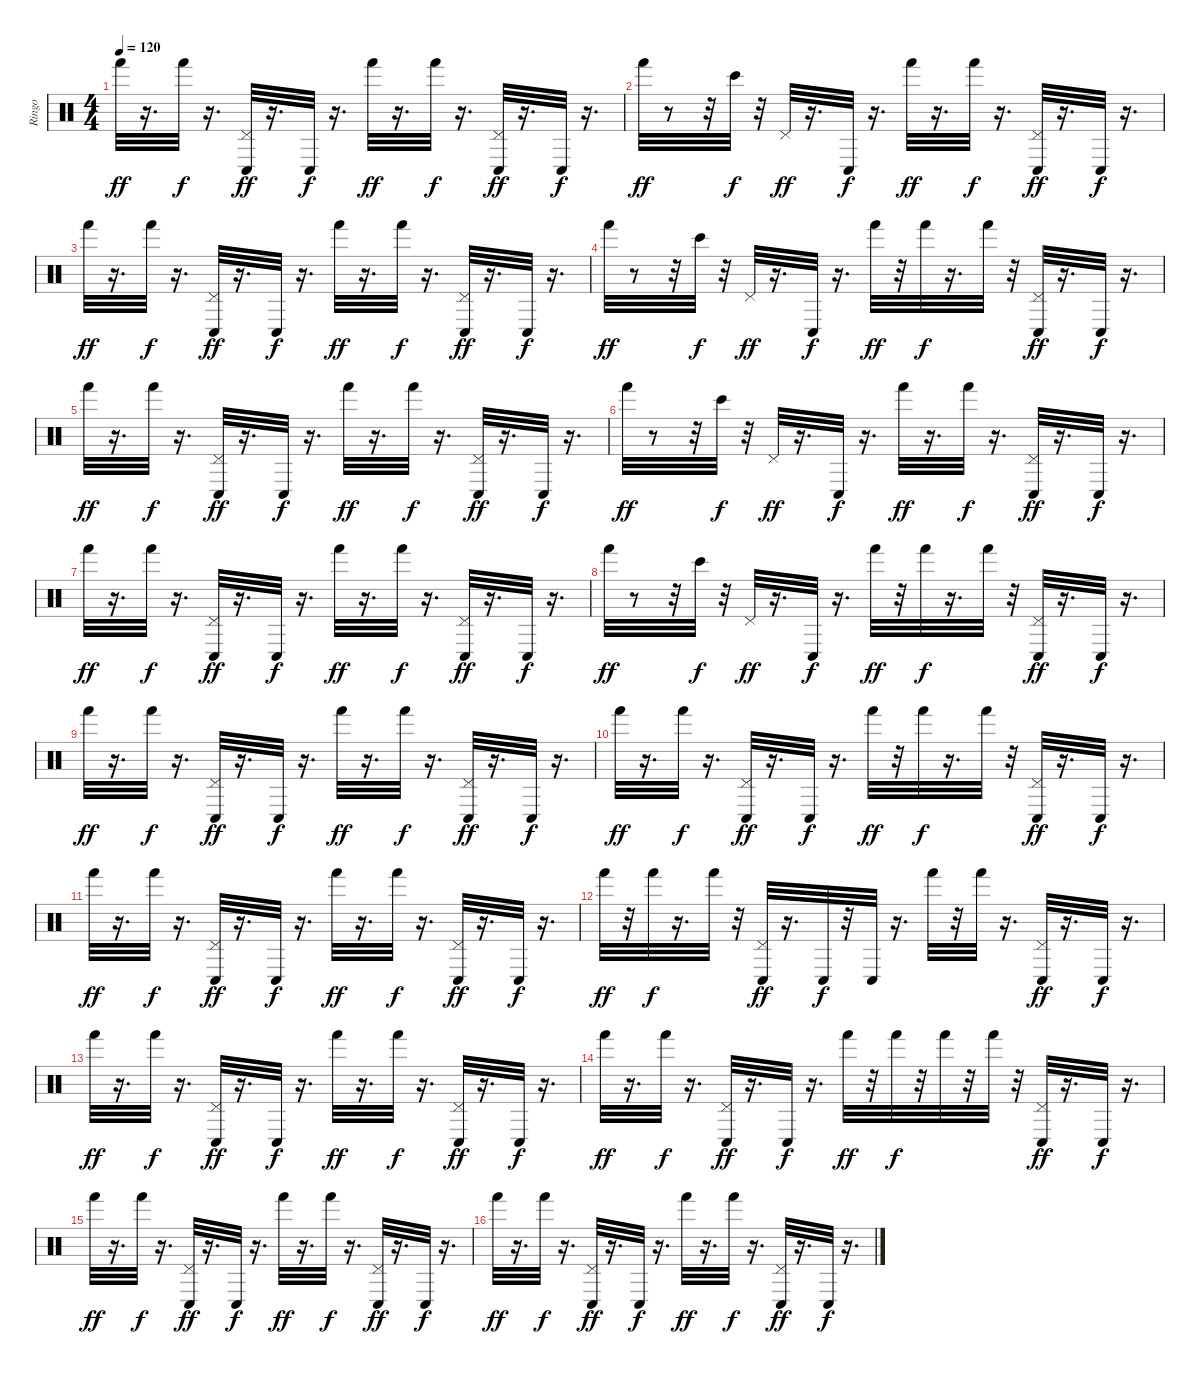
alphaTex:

\track ("Ringo" "Ringo") {instrument percussion}
\staff {score}
\articulation defaults
\ts (4 4)
\tempo 120
\clef neutral
\ks c "Hand (hit)".32{dy ff}
r.16{d} "Hand (hit)".32{dy f} r.16{d} ("Pedal Hi-Hat (hit)" "Conga low (hit)").32{dy ff} r.16{d} "Conga low (hit)".32{dy f} r.16{d} "Hand (hit)".32{dy ff} r.16{d} "Hand (hit)".32{dy f} r.16{d} ("Pedal Hi-Hat (hit)" "Conga low (hit)").32{dy ff} r.16{d} "Conga low (hit)".32{dy f} r.16{d} |
"Hand (hit)".32{dy ff} r.8 r.32 "Bongo High (hit)".32{dy f} r.32 "Pedal Hi-Hat (hit)".32{dy ff} r.16{d} "Conga low (hit)".32{dy f} r.16{d} "Hand (hit)".32{dy ff} r.16{d} "Hand (hit)".32{dy f} r.16{d} ("Conga low (hit)" "Pedal Hi-Hat (hit)").32{dy ff} r.16{d} "Conga low (hit)".32{dy f} r.16{d} |
"Hand (hit)".32{dy ff} r.16{d} "Hand (hit)".32{dy f} r.16{d} ("Conga low (hit)" "Pedal Hi-Hat (hit)").32{dy ff} r.16{d} "Conga low (hit)".32{dy f} r.16{d} "Hand (hit)".32{dy ff} r.16{d} "Hand (hit)".32{dy f} r.16{d} ("Pedal Hi-Hat (hit)" "Conga low (hit)").32{dy ff} r.16{d} "Conga low (hit)".32{dy f} r.16{d} |
"Hand (hit)".32{dy ff} r.8 r.32 "Bongo High (hit)".32{dy f} r.32 "Pedal Hi-Hat (hit)".32{dy ff} r.16{d} "Conga low (hit)".32{dy f} r.16{d} "Hand (hit)".32{dy ff} r.32 "Hand (hit)".32{dy f} r.16{d} "Hand (hit)".32 r.32 ("Pedal Hi-Hat (hit)" "Conga low (hit)").32{dy ff} r.16{d} "Conga low (hit)".32{dy f} r.16{d} |
"Hand (hit)".32{dy ff} r.16{d} "Hand (hit)".32{dy f} r.16{d} ("Conga low (hit)" "Pedal Hi-Hat (hit)").32{dy ff} r.16{d} "Conga low (hit)".32{dy f} r.16{d} "Hand (hit)".32{dy ff} r.16{d} "Hand (hit)".32{dy f} r.16{d} ("Pedal Hi-Hat (hit)" "Conga low (hit)").32{dy ff} r.16{d} "Conga low (hit)".32{dy f} r.16{d} |
"Hand (hit)".32{dy ff} r.8 r.32 "Bongo High (hit)".32{dy f} r.32 "Pedal Hi-Hat (hit)".32{dy ff} r.16{d} "Conga low (hit)".32{dy f} r.16{d} "Hand (hit)".32{dy ff} r.16{d} "Hand (hit)".32{dy f} r.16{d} ("Pedal Hi-Hat (hit)" "Conga low (hit)").32{dy ff} r.16{d} "Conga low (hit)".32{dy f} r.16{d} |
"Hand (hit)".32{dy ff} r.16{d} "Hand (hit)".32{dy f} r.16{d} ("Pedal Hi-Hat (hit)" "Conga low (hit)").32{dy ff} r.16{d} "Conga low (hit)".32{dy f} r.16{d} "Hand (hit)".32{dy ff} r.16{d} "Hand (hit)".32{dy f} r.16{d} ("Conga low (hit)" "Pedal Hi-Hat (hit)").32{dy ff} r.16{d} "Conga low (hit)".32{dy f} r.16{d} |
"Hand (hit)".32{dy ff} r.8 r.32 "Bongo High (hit)".32{dy f} r.32 "Pedal Hi-Hat (hit)".32{dy ff} r.16{d} "Conga low (hit)".32{dy f} r.16{d} "Hand (hit)".32{dy ff} r.32 "Hand (hit)".32{dy f} r.16{d} "Hand (hit)".32 r.32 ("Pedal Hi-Hat (hit)" "Conga low (hit)").32{dy ff} r.16{d} "Conga low (hit)".32{dy f} r.16{d} |
"Hand (hit)".32{dy ff} r.16{d} "Hand (hit)".32{dy f} r.16{d} ("Pedal Hi-Hat (hit)" "Conga low (hit)").32{dy ff} r.16{d} "Conga low (hit)".32{dy f} r.16{d} "Hand (hit)".32{dy ff} r.16{d} "Hand (hit)".32{dy f} r.16{d} ("Conga low (hit)" "Pedal Hi-Hat (hit)").32{dy ff} r.16{d} "Conga low (hit)".32{dy f} r.16{d} |
"Hand (hit)".32{dy ff} r.16{d} "Hand (hit)".32{dy f} r.16{d} ("Pedal Hi-Hat (hit)" "Conga low (hit)").32{dy ff} r.16{d} "Conga low (hit)".32{dy f} r.16{d} "Hand (hit)".32{dy ff} r.32 "Hand (hit)".32{dy f} r.16{d} "Hand (hit)".32 r.32 ("Conga low (hit)" "Pedal Hi-Hat (hit)").32{dy ff} r.16{d} "Conga low (hit)".32{dy f} r.16{d} |
"Hand (hit)".32{dy ff} r.16{d} "Hand (hit)".32{dy f} r.16{d} ("Pedal Hi-Hat (hit)" "Conga low (hit)").32{dy ff} r.16{d} "Conga low (hit)".32{dy f} r.16{d} "Hand (hit)".32{dy ff} r.16{d} "Hand (hit)".32{dy f} r.16{d} ("Pedal Hi-Hat (hit)" "Conga low (hit)").32{dy ff} r.16{d} "Conga low (hit)".32{dy f} r.16{d} |
"Hand (hit)".32{dy ff} r.32 "Hand (hit)".32{dy f} r.16{d} "Hand (hit)".32 r.32 ("Pedal Hi-Hat (hit)" "Conga low (hit)").32{dy ff} r.16{d} "Conga low (hit)".32{dy f} r.32 "Conga low (hit)".32 r.16{d} "Hand (hit)".32 r.32 "Hand (hit)".32 r.16{d} ("Pedal Hi-Hat (hit)" "Conga low (hit)").32{dy ff} r.16{d} "Conga low (hit)".32{dy f} r.16{d} |
"Hand (hit)".32{dy ff} r.16{d} "Hand (hit)".32{dy f} r.16{d} ("Conga low (hit)" "Pedal Hi-Hat (hit)").32{dy ff} r.16{d} "Conga low (hit)".32{dy f} r.16{d} "Hand (hit)".32{dy ff} r.16{d} "Hand (hit)".32{dy f} r.16{d} ("Pedal Hi-Hat (hit)" "Conga low (hit)").32{dy ff} r.16{d} "Conga low (hit)".32{dy f} r.16{d} |
"Hand (hit)".32{dy ff} r.16{d} "Hand (hit)".32{dy f} r.16{d} ("Conga low (hit)" "Pedal Hi-Hat (hit)").32{dy ff} r.16{d} "Conga low (hit)".32{dy f} r.16{d} "Hand (hit)".32{dy ff} r.32 "Hand (hit)".32{dy f} r.32 "Hand (hit)".32 r.32 "Hand (hit)".32 r.32 ("Conga low (hit)" "Pedal Hi-Hat (hit)").32{dy ff} r.16{d} "Conga low (hit)".32{dy f} r.16{d} |
"Hand (hit)".32{dy ff} r.16{d} "Hand (hit)".32{dy f} r.16{d} ("Pedal Hi-Hat (hit)" "Conga low (hit)").32{dy ff} r.16{d} "Conga low (hit)".32{dy f} r.16{d} "Hand (hit)".32{dy ff} r.16{d} "Hand (hit)".32{dy f} r.16{d} ("Conga low (hit)" "Pedal Hi-Hat (hit)").32{dy ff} r.16{d} "Conga low (hit)".32{dy f} r.16{d} |
"Hand (hit)".32{dy ff} r.16{d} "Hand (hit)".32{dy f} r.16{d} ("Pedal Hi-Hat (hit)" "Conga low (hit)").32{dy ff} r.16{d} "Conga low (hit)".32{dy f} r.16{d} "Hand (hit)".32{dy ff} r.16{d} "Hand (hit)".32{dy f} r.16{d} ("Pedal Hi-Hat (hit)" "Conga low (hit)").32{dy ff} r.16{d} "Conga low (hit)".32{dy f} r.16{d}
